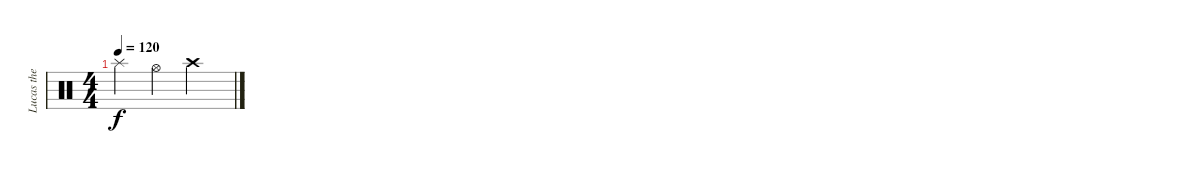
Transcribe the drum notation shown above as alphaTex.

\track ("Lucas the MAN" "Lucas the ") {instrument percussion}
\staff {score}
\articulation defaults
\ts (4 4)
\tempo 120
\clef neutral
\ks c "Splash (hit)".4{dy f} "Hi-Hat (open)".4 "Crash high (hit)".2
